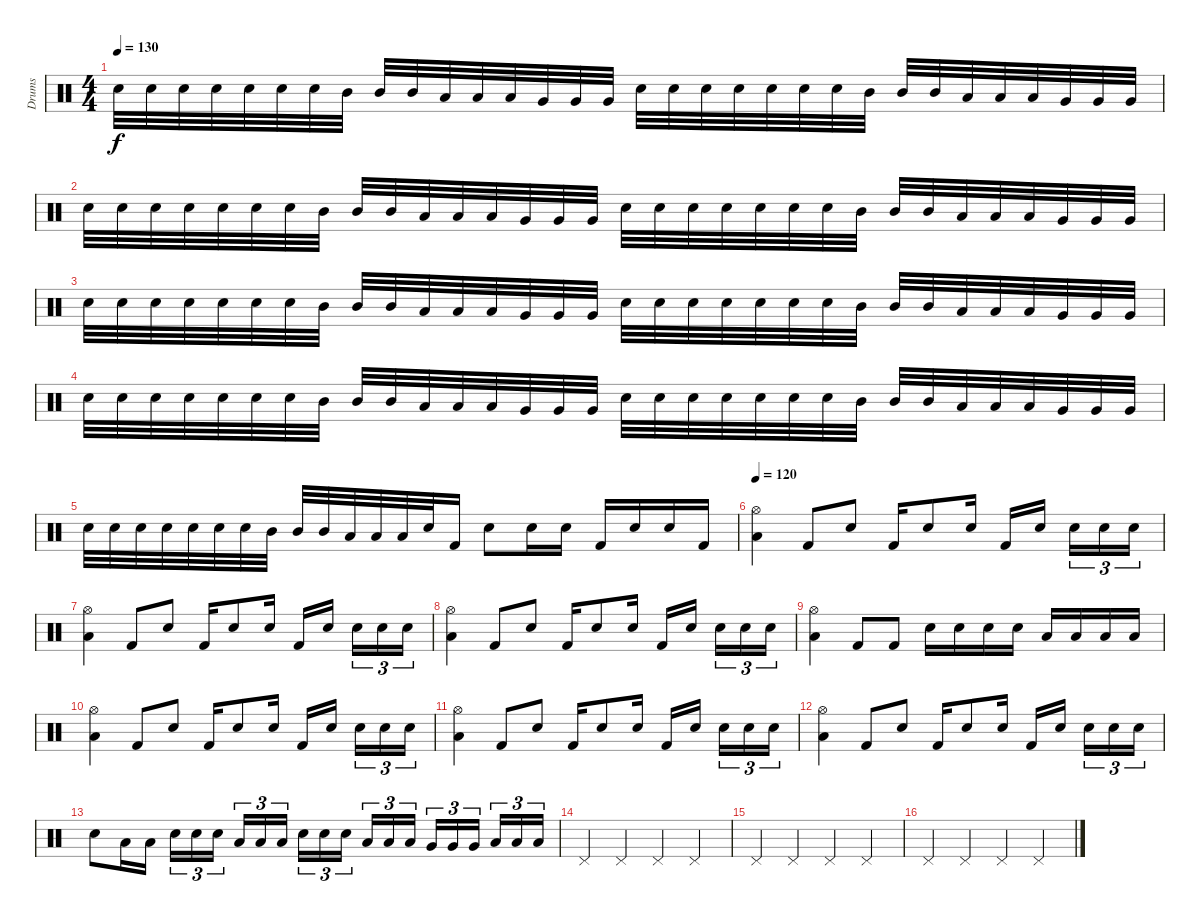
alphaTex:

\track ("Drums" "Drums") {instrument percussion}
\staff
\articulation defaults
\ts (4 4)
\tempo 130
\clef neutral
\ks c "Electric Snare (hit)".32{dy f} "Electric Snare (hit)".32 "Electric Snare (hit)".32 "Electric Snare (hit)".32 "Electric Snare (hit)".32 "Electric Snare (hit)".32 "Electric Snare (hit)".32 "Mid Tom (hit)".32 "Mid Tom (hit)".32 "Mid Tom (hit)".32 "Low Tom (hit)".32 "Low Tom (hit)".32 "Low Tom (hit)".32 "Very Low Tom (hit)".32 "Very Low Tom (hit)".32 "Very Low Tom (hit)".32 "Electric Snare (hit)".32 "Electric Snare (hit)".32 "Electric Snare (hit)".32 "Electric Snare (hit)".32 "Electric Snare (hit)".32 "Electric Snare (hit)".32 "Electric Snare (hit)".32 "Mid Tom (hit)".32 "Mid Tom (hit)".32 "Mid Tom (hit)".32 "Low Tom (hit)".32 "Low Tom (hit)".32 "Low Tom (hit)".32 "Very Low Tom (hit)".32 "Very Low Tom (hit)".32 "Very Low Tom (hit)".32
|
"Electric Snare (hit)".32 "Electric Snare (hit)".32 "Electric Snare (hit)".32 "Electric Snare (hit)".32 "Electric Snare (hit)".32 "Electric Snare (hit)".32 "Electric Snare (hit)".32 "Mid Tom (hit)".32 "Mid Tom (hit)".32 "Mid Tom (hit)".32 "Low Tom (hit)".32 "Low Tom (hit)".32 "Low Tom (hit)".32 "Very Low Tom (hit)".32 "Very Low Tom (hit)".32 "Very Low Tom (hit)".32 "Electric Snare (hit)".32 "Electric Snare (hit)".32 "Electric Snare (hit)".32 "Electric Snare (hit)".32 "Electric Snare (hit)".32 "Electric Snare (hit)".32 "Electric Snare (hit)".32 "Mid Tom (hit)".32 "Mid Tom (hit)".32 "Mid Tom (hit)".32 "Low Tom (hit)".32 "Low Tom (hit)".32 "Low Tom (hit)".32 "Very Low Tom (hit)".32 "Very Low Tom (hit)".32 "Very Low Tom (hit)".32 |
"Electric Snare (hit)".32 "Electric Snare (hit)".32 "Electric Snare (hit)".32 "Electric Snare (hit)".32 "Electric Snare (hit)".32 "Electric Snare (hit)".32 "Electric Snare (hit)".32 "Mid Tom (hit)".32 "Mid Tom (hit)".32 "Mid Tom (hit)".32 "Low Tom (hit)".32 "Low Tom (hit)".32 "Low Tom (hit)".32 "Very Low Tom (hit)".32 "Very Low Tom (hit)".32 "Very Low Tom (hit)".32 "Electric Snare (hit)".32 "Electric Snare (hit)".32 "Electric Snare (hit)".32 "Electric Snare (hit)".32 "Electric Snare (hit)".32 "Electric Snare (hit)".32 "Electric Snare (hit)".32 "Mid Tom (hit)".32 "Mid Tom (hit)".32 "Mid Tom (hit)".32 "Low Tom (hit)".32 "Low Tom (hit)".32 "Low Tom (hit)".32 "Very Low Tom (hit)".32 "Very Low Tom (hit)".32 "Very Low Tom (hit)".32 |
"Electric Snare (hit)".32 "Electric Snare (hit)".32 "Electric Snare (hit)".32 "Electric Snare (hit)".32 "Electric Snare (hit)".32 "Electric Snare (hit)".32 "Electric Snare (hit)".32 "Mid Tom (hit)".32 "Mid Tom (hit)".32 "Mid Tom (hit)".32 "Low Tom (hit)".32 "Low Tom (hit)".32 "Low Tom (hit)".32 "Very Low Tom (hit)".32 "Very Low Tom (hit)".32 "Very Low Tom (hit)".32 "Electric Snare (hit)".32 "Electric Snare (hit)".32 "Electric Snare (hit)".32 "Electric Snare (hit)".32 "Electric Snare (hit)".32 "Electric Snare (hit)".32 "Electric Snare (hit)".32 "Mid Tom (hit)".32 "Mid Tom (hit)".32 "Mid Tom (hit)".32 "Low Tom (hit)".32 "Low Tom (hit)".32 "Low Tom (hit)".32 "Very Low Tom (hit)".32 "Very Low Tom (hit)".32 "Very Low Tom (hit)".32 |
"Electric Snare (hit)".32 "Electric Snare (hit)".32 "Electric Snare (hit)".32 "Electric Snare (hit)".32 "Electric Snare (hit)".32 "Electric Snare (hit)".32 "Electric Snare (hit)".32 "Mid Tom (hit)".32 "Mid Tom (hit)".32 "Mid Tom (hit)".32 "Low Tom (hit)".32 "Low Tom (hit)".32 "Low Tom (hit)".32 "Electric Snare (hit)".32 "Kick (hit) 2".16 "Electric Snare (hit)".8 "Electric Snare (hit)".16 "Electric Snare (hit)".16 "Kick (hit) 2".16 "Electric Snare (hit)".16 "Electric Snare (hit)".16 "Kick (hit) 2".16 |
\tempo 120
("Hi-Hat (open)" "Low Floor Tom (hit)").4{volume 13} "Kick (hit) 2".8 "Electric Snare (hit)".8 "Kick (hit) 2".16 "Electric Snare (hit)".8 "Electric Snare (hit)".16 "Kick (hit) 2".16 "Electric Snare (hit)".16{beam splitsecondary} "Electric Snare (hit)".16{tu (3 2)} "Electric Snare (hit)".16{tu (3 2)} "Electric Snare (hit)".16{tu (3 2)} |
("Hi-Hat (open)" "Low Floor Tom (hit)").4 "Kick (hit) 2".8 "Electric Snare (hit)".8 "Kick (hit) 2".16 "Electric Snare (hit)".8 "Electric Snare (hit)".16 "Kick (hit) 2".16 "Electric Snare (hit)".16{beam splitsecondary} "Electric Snare (hit)".16{tu (3 2)} "Electric Snare (hit)".16{tu (3 2)} "Electric Snare (hit)".16{tu (3 2)} |
("Hi-Hat (open)" "Low Floor Tom (hit)").4 "Kick (hit) 2".8 "Electric Snare (hit)".8 "Kick (hit) 2".16 "Electric Snare (hit)".8 "Electric Snare (hit)".16 "Kick (hit) 2".16 "Electric Snare (hit)".16{beam splitsecondary} "Electric Snare (hit)".16{tu (3 2)} "Electric Snare (hit)".16{tu (3 2)} "Electric Snare (hit)".16{tu (3 2)} |
("Hi-Hat (open)" "Low Floor Tom (hit)").4 "Kick (hit) 2".8 "Kick (hit) 2".8 "Electric Snare (hit)".16 "Electric Snare (hit)".16 "Electric Snare (hit)".16 "Electric Snare (hit)".16 "Low Floor Tom (hit)".16 "Low Floor Tom (hit)".16 "Low Floor Tom (hit)".16 "Low Floor Tom (hit)".16 |
("Hi-Hat (open)" "Low Floor Tom (hit)").4 "Kick (hit) 2".8 "Electric Snare (hit)".8 "Kick (hit) 2".16 "Electric Snare (hit)".8 "Electric Snare (hit)".16 "Kick (hit) 2".16 "Electric Snare (hit)".16{beam splitsecondary} "Electric Snare (hit)".16{tu (3 2)} "Electric Snare (hit)".16{tu (3 2)} "Electric Snare (hit)".16{tu (3 2)} |
("Hi-Hat (open)" "Low Floor Tom (hit)").4 "Kick (hit) 2".8 "Electric Snare (hit)".8 "Kick (hit) 2".16 "Electric Snare (hit)".8 "Electric Snare (hit)".16 "Kick (hit) 2".16 "Electric Snare (hit)".16{beam splitsecondary} "Electric Snare (hit)".16{tu (3 2)} "Electric Snare (hit)".16{tu (3 2)} "Electric Snare (hit)".16{tu (3 2)} |
("Hi-Hat (open)" "Low Floor Tom (hit)").4 "Kick (hit) 2".8 "Electric Snare (hit)".8 "Kick (hit) 2".16 "Electric Snare (hit)".8 "Electric Snare (hit)".16 "Kick (hit) 2".16 "Electric Snare (hit)".16{beam splitsecondary} "Electric Snare (hit)".16{tu (3 2)} "Electric Snare (hit)".16{tu (3 2)} "Electric Snare (hit)".16{tu (3 2)} |
"Electric Snare (hit)".8 "Low Floor Tom (hit)".16 "Low Floor Tom (hit)".16 "Electric Snare (hit)".16{tu (3 2)} "Electric Snare (hit)".16{tu (3 2)} "Electric Snare (hit)".16{tu (3 2) beam splitsecondary} "Low Floor Tom (hit)".16{tu (3 2)} "Low Floor Tom (hit)".16{tu (3 2)} "Low Floor Tom (hit)".16{tu (3 2)} "Electric Snare (hit)".16{tu (3 2)} "Electric Snare (hit)".16{tu (3 2)} "Electric Snare (hit)".16{tu (3 2) beam splitsecondary} "Low Tom (hit)".16{tu (3 2)} "Low Tom (hit)".16{tu (3 2)} "Low Tom (hit)".16{tu (3 2)} "Very Low Tom (hit)".16{tu (3 2)} "Very Low Tom (hit)".16{tu (3 2)} "Very Low Tom (hit)".16{tu (3 2) beam splitsecondary} "Low Floor Tom (hit)".16{tu (3 2)} "Low Floor Tom (hit)".16{tu (3 2)} "Low Floor Tom (hit)".16{tu (3 2)} |
"Pedal Hi-Hat (hit)".4 "Pedal Hi-Hat (hit)".4 "Pedal Hi-Hat (hit)".4 "Pedal Hi-Hat (hit)".4 |
"Pedal Hi-Hat (hit)".4 "Pedal Hi-Hat (hit)".4 "Pedal Hi-Hat (hit)".4 "Pedal Hi-Hat (hit)".4 |
"Pedal Hi-Hat (hit)".4 "Pedal Hi-Hat (hit)".4 "Pedal Hi-Hat (hit)".4 "Pedal Hi-Hat (hit)".4
